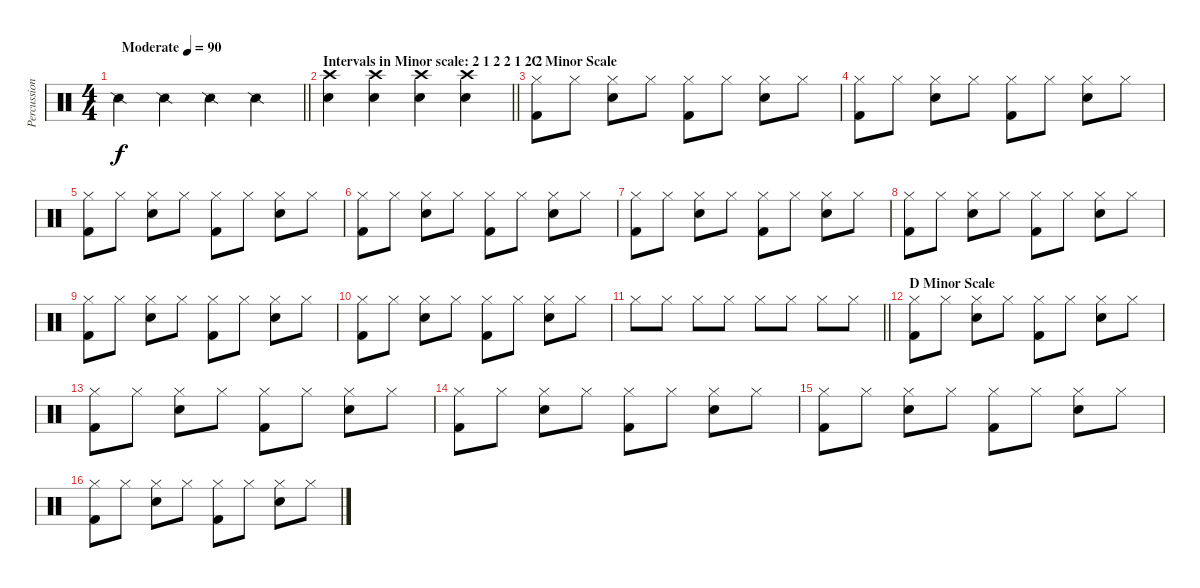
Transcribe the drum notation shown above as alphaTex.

\track ("Percussion" "Percussion") {instrument percussion}
\staff {score}
\articulation defaults
\ts (4 4)
\tempo (90 "Moderate")
\clef neutral
\barLineRight lightlight
\ks c "Snare (side stick) 2".4{dy f} "Snare (side stick) 2".4 "Snare (side stick) 2".4 "Snare (side stick) 2".4
|
\section ("" "Intervals in Minor scale: 2 1 2 2 1 2 2")
\barLineRight lightlight
("Crash high (hit)" "Snare (hit) 2").4 ("Crash high (hit)" "Snare (hit) 2").4 ("Crash high (hit)" "Snare (hit) 2").4 ("Crash high (hit)" "Snare (hit) 2").4 |
\section ("" "C Minor Scale")
("Kick (hit) 2" "Hi-Hat (closed)").8 "Hi-Hat (closed)".8 ("Snare (hit) 2" "Hi-Hat (closed)").8 "Hi-Hat (closed)".8 ("Kick (hit) 2" "Hi-Hat (closed)").8 "Hi-Hat (closed)".8 ("Snare (hit) 2" "Hi-Hat (closed)").8 "Hi-Hat (closed)".8 |
("Kick (hit) 2" "Hi-Hat (closed)").8 "Hi-Hat (closed)".8 ("Snare (hit) 2" "Hi-Hat (closed)").8 "Hi-Hat (closed)".8 ("Kick (hit) 2" "Hi-Hat (closed)").8 "Hi-Hat (closed)".8 ("Snare (hit) 2" "Hi-Hat (closed)").8 "Hi-Hat (closed)".8 |
("Kick (hit) 2" "Hi-Hat (closed)").8 "Hi-Hat (closed)".8 ("Snare (hit) 2" "Hi-Hat (closed)").8 "Hi-Hat (closed)".8 ("Kick (hit) 2" "Hi-Hat (closed)").8 "Hi-Hat (closed)".8 ("Snare (hit) 2" "Hi-Hat (closed)").8 "Hi-Hat (closed)".8 |
("Kick (hit) 2" "Hi-Hat (closed)").8 "Hi-Hat (closed)".8 ("Snare (hit) 2" "Hi-Hat (closed)").8 "Hi-Hat (closed)".8 ("Kick (hit) 2" "Hi-Hat (closed)").8 "Hi-Hat (closed)".8 ("Snare (hit) 2" "Hi-Hat (closed)").8 "Hi-Hat (closed)".8 |
("Kick (hit) 2" "Hi-Hat (closed)").8 "Hi-Hat (closed)".8 ("Snare (hit) 2" "Hi-Hat (closed)").8 "Hi-Hat (closed)".8 ("Kick (hit) 2" "Hi-Hat (closed)").8 "Hi-Hat (closed)".8 ("Snare (hit) 2" "Hi-Hat (closed)").8 "Hi-Hat (closed)".8 |
("Kick (hit) 2" "Hi-Hat (closed)").8 "Hi-Hat (closed)".8 ("Snare (hit) 2" "Hi-Hat (closed)").8 "Hi-Hat (closed)".8 ("Kick (hit) 2" "Hi-Hat (closed)").8 "Hi-Hat (closed)".8 ("Snare (hit) 2" "Hi-Hat (closed)").8 "Hi-Hat (closed)".8 |
("Kick (hit) 2" "Hi-Hat (closed)").8 "Hi-Hat (closed)".8 ("Snare (hit) 2" "Hi-Hat (closed)").8 "Hi-Hat (closed)".8 ("Kick (hit) 2" "Hi-Hat (closed)").8 "Hi-Hat (closed)".8 ("Snare (hit) 2" "Hi-Hat (closed)").8 "Hi-Hat (closed)".8 |
("Kick (hit) 2" "Hi-Hat (closed)").8 "Hi-Hat (closed)".8 ("Snare (hit) 2" "Hi-Hat (closed)").8 "Hi-Hat (closed)".8 ("Kick (hit) 2" "Hi-Hat (closed)").8 "Hi-Hat (closed)".8 ("Snare (hit) 2" "Hi-Hat (closed)").8 "Hi-Hat (closed)".8 |
\barLineRight lightlight "Hi-Hat (closed)".8 "Hi-Hat (closed)".8 "Hi-Hat (closed)".8 "Hi-Hat (closed)".8 "Hi-Hat (closed)".8 "Hi-Hat (closed)".8 "Hi-Hat (closed)".8 "Hi-Hat (closed)".8
|
\section ("" "D Minor Scale")
("Kick (hit) 2" "Hi-Hat (closed)").8 "Hi-Hat (closed)".8 ("Snare (hit) 2" "Hi-Hat (closed)").8 "Hi-Hat (closed)".8 ("Kick (hit) 2" "Hi-Hat (closed)").8 "Hi-Hat (closed)".8 ("Snare (hit) 2" "Hi-Hat (closed)").8 "Hi-Hat (closed)".8 |
("Kick (hit) 2" "Hi-Hat (closed)").8 "Hi-Hat (closed)".8 ("Snare (hit) 2" "Hi-Hat (closed)").8 "Hi-Hat (closed)".8 ("Kick (hit) 2" "Hi-Hat (closed)").8 "Hi-Hat (closed)".8 ("Snare (hit) 2" "Hi-Hat (closed)").8 "Hi-Hat (closed)".8 |
("Kick (hit) 2" "Hi-Hat (closed)").8 "Hi-Hat (closed)".8 ("Snare (hit) 2" "Hi-Hat (closed)").8 "Hi-Hat (closed)".8 ("Kick (hit) 2" "Hi-Hat (closed)").8 "Hi-Hat (closed)".8 ("Snare (hit) 2" "Hi-Hat (closed)").8 "Hi-Hat (closed)".8 |
("Kick (hit) 2" "Hi-Hat (closed)").8 "Hi-Hat (closed)".8 ("Snare (hit) 2" "Hi-Hat (closed)").8 "Hi-Hat (closed)".8 ("Kick (hit) 2" "Hi-Hat (closed)").8 "Hi-Hat (closed)".8 ("Snare (hit) 2" "Hi-Hat (closed)").8 "Hi-Hat (closed)".8 |
("Kick (hit) 2" "Hi-Hat (closed)").8 "Hi-Hat (closed)".8 ("Snare (hit) 2" "Hi-Hat (closed)").8 "Hi-Hat (closed)".8 ("Kick (hit) 2" "Hi-Hat (closed)").8 "Hi-Hat (closed)".8 ("Snare (hit) 2" "Hi-Hat (closed)").8 "Hi-Hat (closed)".8
